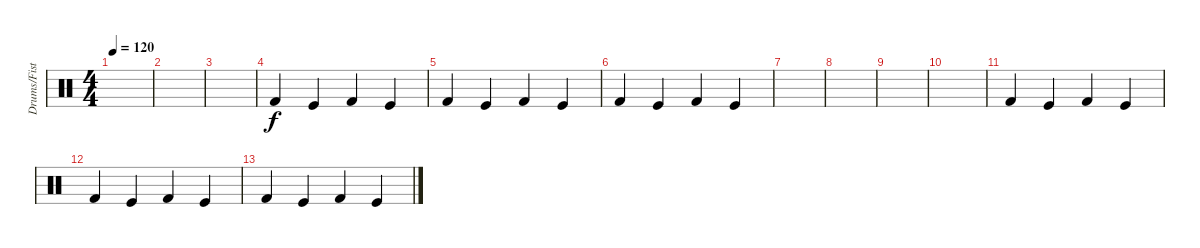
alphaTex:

\track ("Drums/Fists" "Drums/Fist") {instrument percussion}
\staff {score}
\articulation defaults
\ts (4 4)
\tempo 120
\clef neutral
\ks c
|
|
|
"Kick (hit) 2".4 "Kick (hit)".4 "Kick (hit) 2".4 "Kick (hit)".4 |
"Kick (hit) 2".4 "Kick (hit)".4 "Kick (hit) 2".4 "Kick (hit)".4 |
"Kick (hit) 2".4 "Kick (hit)".4 "Kick (hit) 2".4 "Kick (hit)".4 |
|
|
|
|
"Kick (hit) 2".4 "Kick (hit)".4 "Kick (hit) 2".4 "Kick (hit)".4 |
"Kick (hit) 2".4 "Kick (hit)".4 "Kick (hit) 2".4 "Kick (hit)".4 |
"Kick (hit) 2".4 "Kick (hit)".4 "Kick (hit) 2".4 "Kick (hit)".4
